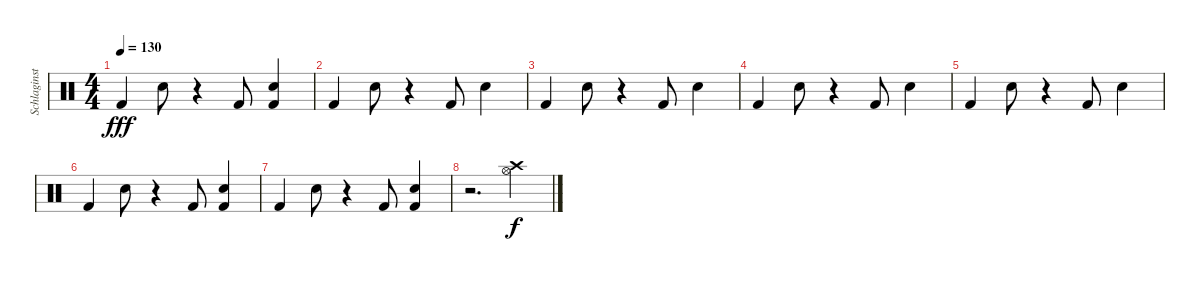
\track ("Schlaginstrumente - Auswahl" "Schlaginst") {instrument percussion}
\staff {score}
\articulation defaults
\ts (4 4)
\tempo 130
\clef neutral
\ks c "Kick (hit) 2".4{dy fff} "Snare (hit) 2".8
r.4 "Kick (hit) 2".8 ("Snare (hit) 2" "Kick (hit) 2").4 |
"Kick (hit) 2".4 "Snare (hit) 2".8 r.4 "Kick (hit) 2".8 "Snare (hit) 2".4 |
"Kick (hit) 2".4 "Snare (hit) 2".8 r.4 "Kick (hit) 2".8 "Snare (hit) 2".4 |
"Kick (hit) 2".4 "Snare (hit) 2".8 r.4 "Kick (hit) 2".8 "Snare (hit) 2".4 |
"Kick (hit) 2".4 "Snare (hit) 2".8 r.4 "Kick (hit) 2".8 "Snare (hit) 2".4 |
"Kick (hit) 2".4 "Snare (hit) 2".8 r.4 "Kick (hit) 2".8 ("Snare (hit) 2" "Kick (hit) 2").4 |
"Kick (hit) 2".4 "Snare (hit) 2".8 r.4 "Kick (hit) 2".8 ("Snare (hit) 2" "Kick (hit) 2").4 |
r.2{d} ("Crash high (hit)" "Hi-Hat (open)").4{dy f}
